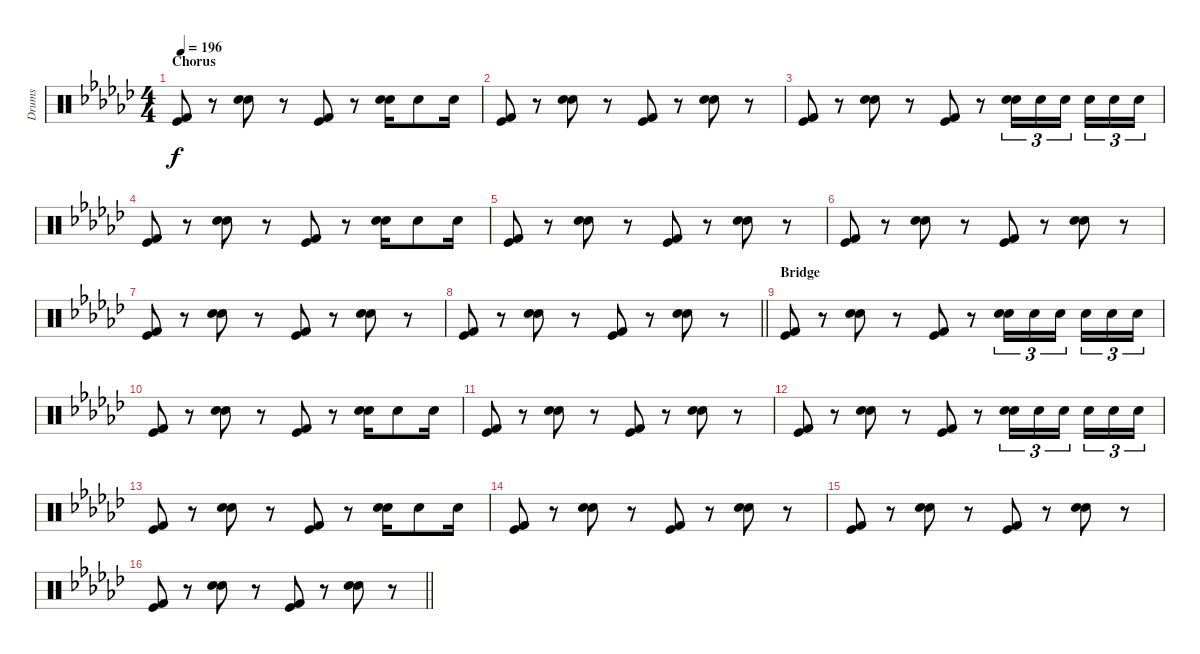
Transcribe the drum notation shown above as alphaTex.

\track ("Drums" "Drums") {instrument percussion}
\staff {score}
\articulation defaults
\ts (4 4)
\section ("" "Chorus")
\tempo 196
\clef neutral
\ks gb
("Kick (hit) 2" "Kick (hit)").8{dy f} r.8 ("Snare (hit) 2" "Electric Snare (hit)").8 r.8 ("Kick (hit) 2" "Kick (hit)").8 r.8 ("Snare (hit) 2" "Electric Snare (hit)").16 "Hand Clap (hit)".8 "Hand Clap (hit)".16 |
("Kick (hit) 2" "Kick (hit)").8 r.8 ("Snare (hit) 2" "Electric Snare (hit)").8 r.8 ("Kick (hit) 2" "Kick (hit)").8 r.8 ("Snare (hit) 2" "Electric Snare (hit)").8 r.8 |
("Kick (hit) 2" "Kick (hit)").8 r.8 ("Snare (hit) 2" "Electric Snare (hit)").8 r.8 ("Kick (hit) 2" "Kick (hit)").8 r.8 ("Hand Clap (hit)" "Electric Snare (hit)").16{tu (3 2)} "Hand Clap (hit)".16{tu (3 2)} "Hand Clap (hit)".16{tu (3 2) beam splitsecondary} "Hand Clap (hit)".16{tu (3 2)} "Hand Clap (hit)".16{tu (3 2)} "Hand Clap (hit)".16{tu (3 2)} |
("Kick (hit) 2" "Kick (hit)").8 r.8 ("Snare (hit) 2" "Electric Snare (hit)").8 r.8 ("Kick (hit) 2" "Kick (hit)").8 r.8 ("Snare (hit) 2" "Electric Snare (hit)").16 "Hand Clap (hit)".8 "Hand Clap (hit)".16 |
("Kick (hit) 2" "Kick (hit)").8 r.8 ("Snare (hit) 2" "Electric Snare (hit)").8 r.8 ("Kick (hit) 2" "Kick (hit)").8 r.8 ("Snare (hit) 2" "Electric Snare (hit)").8 r.8 |
("Kick (hit) 2" "Kick (hit)").8 r.8 ("Snare (hit) 2" "Electric Snare (hit)").8 r.8 ("Kick (hit) 2" "Kick (hit)").8 r.8 ("Snare (hit) 2" "Electric Snare (hit)").8 r.8 |
("Kick (hit) 2" "Kick (hit)").8 r.8 ("Snare (hit) 2" "Electric Snare (hit)").8 r.8 ("Kick (hit) 2" "Kick (hit)").8 r.8 ("Snare (hit) 2" "Electric Snare (hit)").8 r.8 |
\barLineRight lightlight
("Kick (hit) 2" "Kick (hit)").8 r.8 ("Snare (hit) 2" "Electric Snare (hit)").8 r.8 ("Kick (hit) 2" "Kick (hit)").8 r.8 ("Snare (hit) 2" "Electric Snare (hit)").8 r.8 |
\section ("" "Bridge")
("Kick (hit) 2" "Kick (hit)").8 r.8 ("Snare (hit) 2" "Electric Snare (hit)").8 r.8 ("Kick (hit) 2" "Kick (hit)").8 r.8 ("Hand Clap (hit)" "Electric Snare (hit)").16{tu (3 2)} "Hand Clap (hit)".16{tu (3 2)} "Hand Clap (hit)".16{tu (3 2) beam splitsecondary} "Hand Clap (hit)".16{tu (3 2)} "Hand Clap (hit)".16{tu (3 2)} "Hand Clap (hit)".16{tu (3 2)} |
("Kick (hit) 2" "Kick (hit)").8 r.8 ("Snare (hit) 2" "Electric Snare (hit)").8 r.8 ("Kick (hit) 2" "Kick (hit)").8 r.8 ("Snare (hit) 2" "Electric Snare (hit)").16 "Hand Clap (hit)".8 "Hand Clap (hit)".16 |
("Kick (hit) 2" "Kick (hit)").8 r.8 ("Snare (hit) 2" "Electric Snare (hit)").8 r.8 ("Kick (hit) 2" "Kick (hit)").8 r.8 ("Snare (hit) 2" "Electric Snare (hit)").8 r.8 |
("Kick (hit) 2" "Kick (hit)").8 r.8 ("Snare (hit) 2" "Electric Snare (hit)").8 r.8 ("Kick (hit) 2" "Kick (hit)").8 r.8 ("Hand Clap (hit)" "Electric Snare (hit)").16{tu (3 2)} "Hand Clap (hit)".16{tu (3 2)} "Hand Clap (hit)".16{tu (3 2) beam splitsecondary} "Hand Clap (hit)".16{tu (3 2)} "Hand Clap (hit)".16{tu (3 2)} "Hand Clap (hit)".16{tu (3 2)} |
("Kick (hit) 2" "Kick (hit)").8 r.8 ("Snare (hit) 2" "Electric Snare (hit)").8 r.8 ("Kick (hit) 2" "Kick (hit)").8 r.8 ("Snare (hit) 2" "Electric Snare (hit)").16 "Hand Clap (hit)".8 "Hand Clap (hit)".16 |
("Kick (hit) 2" "Kick (hit)").8 r.8 ("Snare (hit) 2" "Electric Snare (hit)").8 r.8 ("Kick (hit) 2" "Kick (hit)").8 r.8 ("Snare (hit) 2" "Electric Snare (hit)").8 r.8 |
("Kick (hit) 2" "Kick (hit)").8 r.8 ("Snare (hit) 2" "Electric Snare (hit)").8 r.8 ("Kick (hit) 2" "Kick (hit)").8 r.8 ("Snare (hit) 2" "Electric Snare (hit)").8 r.8 |
\barLineRight lightlight
("Kick (hit) 2" "Kick (hit)").8 r.8 ("Snare (hit) 2" "Electric Snare (hit)").8 r.8 ("Kick (hit) 2" "Kick (hit)").8 r.8 ("Snare (hit) 2" "Electric Snare (hit)").8 r.8
